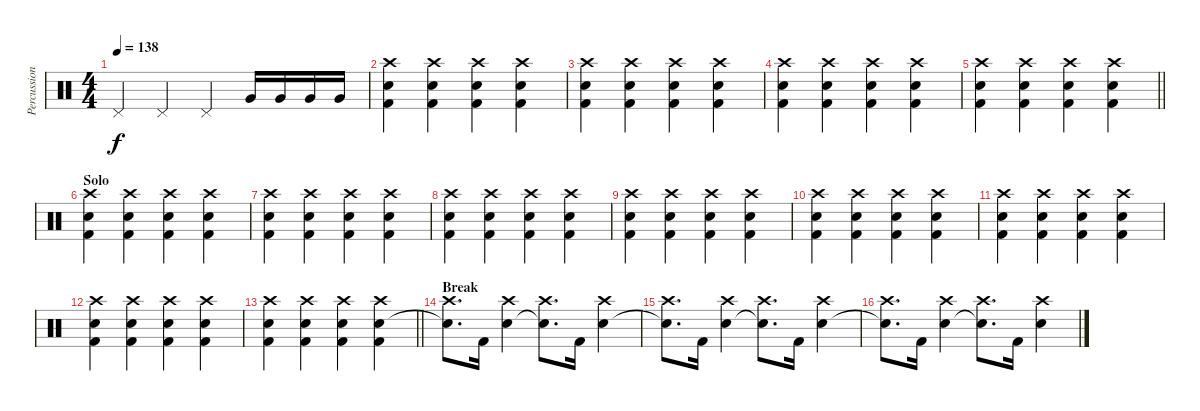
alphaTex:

\track ("Percussions Karim" "Percussion") {instrument percussion}
\staff {score}
\articulation defaults
\ts (4 4)
\tempo 138
\clef neutral
\ks c "Pedal Hi-Hat (hit)".4{dy f} "Pedal Hi-Hat (hit)".4 "Pedal Hi-Hat (hit)".4 "Very Low Tom (hit)".16 "Very Low Tom (hit)".16 "Very Low Tom (hit)".16 "Very Low Tom (hit)".16
|
("Crash high (hit)" "Electric Snare (hit)" "Kick (hit) 2").4 ("Crash high (hit)" "Electric Snare (hit)" "Kick (hit) 2").4 ("Crash high (hit)" "Electric Snare (hit)" "Kick (hit) 2").4 ("Crash high (hit)" "Electric Snare (hit)" "Kick (hit) 2").4 |
("Crash high (hit)" "Electric Snare (hit)" "Kick (hit) 2").4 ("Crash high (hit)" "Electric Snare (hit)" "Kick (hit) 2").4 ("Crash high (hit)" "Electric Snare (hit)" "Kick (hit) 2").4 ("Crash high (hit)" "Electric Snare (hit)" "Kick (hit) 2").4 |
("Crash high (hit)" "Electric Snare (hit)" "Kick (hit) 2").4 ("Crash high (hit)" "Electric Snare (hit)" "Kick (hit) 2").4 ("Crash high (hit)" "Electric Snare (hit)" "Kick (hit) 2").4 ("Crash high (hit)" "Electric Snare (hit)" "Kick (hit) 2").4 |
\barLineRight lightlight
("Crash high (hit)" "Electric Snare (hit)" "Kick (hit) 2").4 ("Crash high (hit)" "Electric Snare (hit)" "Kick (hit) 2").4 ("Crash high (hit)" "Electric Snare (hit)" "Kick (hit) 2").4 ("Crash high (hit)" "Electric Snare (hit)" "Kick (hit) 2").4 |
\section ("" "Solo")
("Crash high (hit)" "Electric Snare (hit)" "Kick (hit) 2").4 ("Crash high (hit)" "Electric Snare (hit)" "Kick (hit) 2").4 ("Crash high (hit)" "Electric Snare (hit)" "Kick (hit) 2").4 ("Crash high (hit)" "Electric Snare (hit)" "Kick (hit) 2").4 |
("Crash high (hit)" "Electric Snare (hit)" "Kick (hit) 2").4 ("Crash high (hit)" "Electric Snare (hit)" "Kick (hit) 2").4 ("Crash high (hit)" "Electric Snare (hit)" "Kick (hit) 2").4 ("Crash high (hit)" "Electric Snare (hit)" "Kick (hit) 2").4 |
("Crash high (hit)" "Electric Snare (hit)" "Kick (hit) 2").4 ("Crash high (hit)" "Electric Snare (hit)" "Kick (hit) 2").4 ("Crash high (hit)" "Electric Snare (hit)" "Kick (hit) 2").4 ("Crash high (hit)" "Electric Snare (hit)" "Kick (hit) 2").4 |
("Crash high (hit)" "Electric Snare (hit)" "Kick (hit) 2").4 ("Crash high (hit)" "Electric Snare (hit)" "Kick (hit) 2").4 ("Crash high (hit)" "Electric Snare (hit)" "Kick (hit) 2").4 ("Crash high (hit)" "Electric Snare (hit)" "Kick (hit) 2").4 |
("Crash high (hit)" "Electric Snare (hit)" "Kick (hit) 2").4 ("Crash high (hit)" "Electric Snare (hit)" "Kick (hit) 2").4 ("Crash high (hit)" "Electric Snare (hit)" "Kick (hit) 2").4 ("Crash high (hit)" "Electric Snare (hit)" "Kick (hit) 2").4 |
("Crash high (hit)" "Electric Snare (hit)" "Kick (hit) 2").4 ("Crash high (hit)" "Electric Snare (hit)" "Kick (hit) 2").4 ("Crash high (hit)" "Electric Snare (hit)" "Kick (hit) 2").4 ("Crash high (hit)" "Electric Snare (hit)" "Kick (hit) 2").4 |
("Crash high (hit)" "Electric Snare (hit)" "Kick (hit) 2").4 ("Crash high (hit)" "Electric Snare (hit)" "Kick (hit) 2").4 ("Crash high (hit)" "Electric Snare (hit)" "Kick (hit) 2").4 ("Crash high (hit)" "Electric Snare (hit)" "Kick (hit) 2").4 |
\barLineRight lightlight
("Crash high (hit)" "Electric Snare (hit)" "Kick (hit) 2").4 ("Crash high (hit)" "Electric Snare (hit)" "Kick (hit) 2").4 ("Crash high (hit)" "Electric Snare (hit)" "Kick (hit) 2").4 ("Crash high (hit)" "Electric Snare (hit)" "Kick (hit) 2").4 |
\section ("" "Break")
("Crash high (hit)" "Electric Snare (hit)"{t}).8{d} "Kick (hit) 2".16 ("Crash high (hit)" "Electric Snare (hit)").4 ("Crash high (hit)" "Electric Snare (hit)"{t}).8{d} "Kick (hit) 2".16 ("Crash high (hit)" "Electric Snare (hit)").4 |
("Crash high (hit)" "Electric Snare (hit)"{t}).8{d} "Kick (hit) 2".16 ("Crash high (hit)" "Electric Snare (hit)").4 ("Crash high (hit)" "Electric Snare (hit)"{t}).8{d} "Kick (hit) 2".16 ("Crash high (hit)" "Electric Snare (hit)").4 |
("Crash high (hit)" "Electric Snare (hit)"{t}).8{d} "Kick (hit) 2".16 ("Crash high (hit)" "Electric Snare (hit)").4 ("Crash high (hit)" "Electric Snare (hit)"{t}).8{d} "Kick (hit) 2".16 ("Crash high (hit)" "Electric Snare (hit)").4
